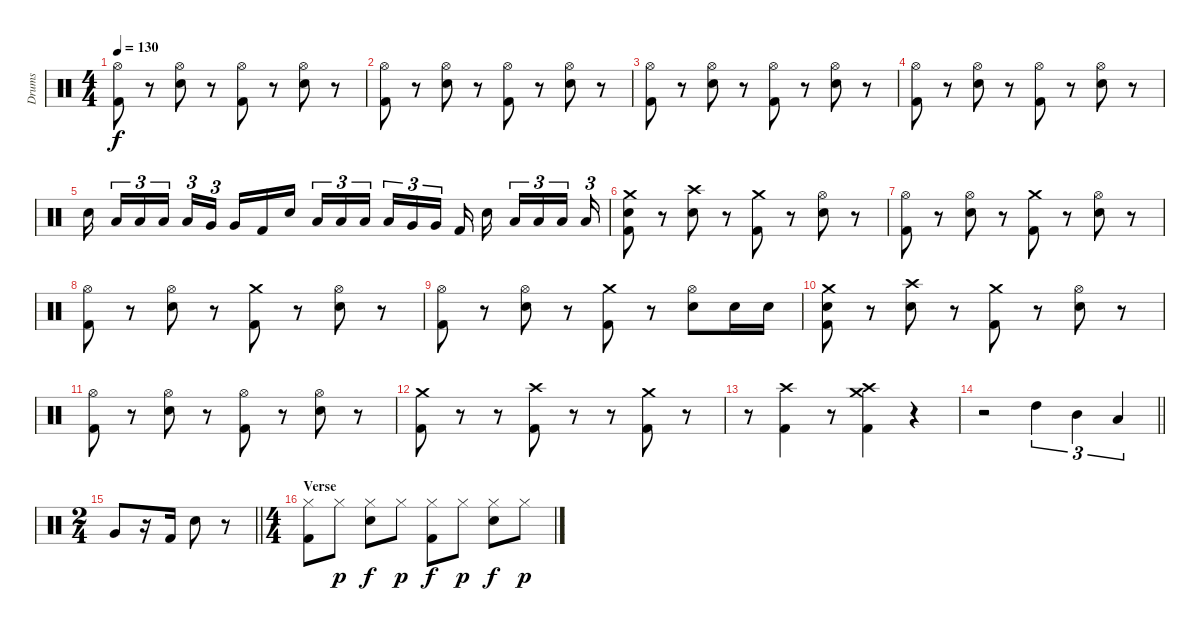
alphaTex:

\track ("Drums" "Drums") {instrument percussion}
\staff {score}
\articulation defaults
\ts (4 4)
\tempo 130
\clef neutral
\ks c
("Hi-Hat (open)" "Kick (hit) 2").8{dy f} r.8 ("Hi-Hat (open)" "Electric Snare (hit)").8 r.8 ("Hi-Hat (open)" "Kick (hit) 2").8 r.8 ("Hi-Hat (open)" "Electric Snare (hit)").8 r.8 |
("Hi-Hat (open)" "Kick (hit) 2").8 r.8 ("Hi-Hat (open)" "Electric Snare (hit)").8 r.8 ("Hi-Hat (open)" "Kick (hit) 2").8 r.8 ("Hi-Hat (open)" "Electric Snare (hit)").8 r.8 |
("Hi-Hat (open)" "Kick (hit) 2").8 r.8 ("Hi-Hat (open)" "Electric Snare (hit)").8 r.8 ("Hi-Hat (open)" "Kick (hit) 2").8 r.8 ("Hi-Hat (open)" "Electric Snare (hit)").8 r.8 |
("Hi-Hat (open)" "Kick (hit) 2").8 r.8 ("Hi-Hat (open)" "Electric Snare (hit)").8 r.8 ("Hi-Hat (open)" "Kick (hit) 2").8 r.8 ("Hi-Hat (open)" "Electric Snare (hit)").8 r.8 |
"Electric Snare (hit)".16{beam splitsecondary} "Low Tom (hit)".16{tu (3 2)} "Low Tom (hit)".16{tu (3 2)} "Low Tom (hit)".16{tu (3 2) beam splitsecondary} "Low Tom (hit)".16{tu (3 2)} "Very Low Tom (hit)".16{tu (3 2)} "Very Low Tom (hit)".16 "Kick (hit) 2".16 "Electric Snare (hit)".16{beam splitsecondary} "Low Tom (hit)".16{tu (3 2)} "Low Tom (hit)".16{tu (3 2)} "Low Tom (hit)".16{tu (3 2) beam splitsecondary} "Low Tom (hit)".16{tu (3 2)} "Very Low Tom (hit)".16{tu (3 2)} "Very Low Tom (hit)".16{tu (3 2) beam splitsecondary} "Kick (hit) 2".16 "Electric Snare (hit)".16{beam splitsecondary} "Low Tom (hit)".16{tu (3 2)} "Low Tom (hit)".16{tu (3 2)} "Low Tom (hit)".16{tu (3 2) beam splitsecondary} "Low Tom (hit)".16{tu (3 2)} |
("Crash medium (hit)" "Electric Snare (hit)" "Kick (hit) 2").8 r.8 ("Crash high (hit)" "Electric Snare (hit)").8 r.8 ("Crash medium (hit)" "Kick (hit) 2").8 r.8 ("Hi-Hat (open)" "Electric Snare (hit)").8 r.8 |
("Hi-Hat (open)" "Kick (hit) 2").8 r.8 ("Hi-Hat (open)" "Electric Snare (hit)").8 r.8 ("Crash medium (hit)" "Kick (hit) 2").8 r.8 ("Hi-Hat (open)" "Electric Snare (hit)").8 r.8 |
("Hi-Hat (open)" "Kick (hit) 2").8 r.8 ("Hi-Hat (open)" "Electric Snare (hit)").8 r.8 ("Crash medium (hit)" "Kick (hit) 2").8 r.8 ("Hi-Hat (open)" "Electric Snare (hit)").8 r.8 |
("Hi-Hat (open)" "Kick (hit) 2").8 r.8 ("Hi-Hat (open)" "Electric Snare (hit)").8 r.8 ("Crash medium (hit)" "Kick (hit) 2").8 r.8 ("Hi-Hat (open)" "Electric Snare (hit)").8 "Electric Snare (hit)".16 "Electric Snare (hit)".16 |
("Crash medium (hit)" "Electric Snare (hit)" "Kick (hit) 2").8 r.8 ("Crash high (hit)" "Electric Snare (hit)").8 r.8 ("Crash medium (hit)" "Kick (hit) 2").8 r.8 ("Hi-Hat (open)" "Electric Snare (hit)").8 r.8 |
("Hi-Hat (open)" "Kick (hit) 2").8 r.8 ("Hi-Hat (open)" "Electric Snare (hit)").8 r.8 ("Hi-Hat (open)" "Kick (hit) 2").8 r.8 ("Hi-Hat (open)" "Electric Snare (hit)").8 r.8 |
("Crash medium (hit)" "Kick (hit) 2").8 r.8 r.8 ("Crash high (hit)" "Kick (hit) 2").8 r.8 r.8 ("Crash medium (hit)" "Kick (hit) 2").8 r.8 |
r.8 ("Crash high (hit)" "Kick (hit) 2").4 r.8 ("Crash high (hit)" "Crash medium (hit)" "Kick (hit) 2").4 r.4 |
\barLineRight lightlight
r.2 "High Tom (hit)".4{tu (3 2)} "Mid Tom (hit)".4{tu (3 2)} "Low Tom (hit)".4{tu (3 2)} |
\ts (2 4)
\barLineRight lightlight "Very Low Tom (hit)".8
r.16 "Kick (hit) 2".16 "Electric Snare (hit)".8 r.8 |
\ts (4 4)
\section ("" "Verse")
("Hi-Hat (closed)" "Kick (hit) 2").8 "Hi-Hat (closed)".8{dy p} ("Hi-Hat (closed)" "Electric Snare (hit)").8{dy f} "Hi-Hat (closed)".8{dy p} ("Hi-Hat (closed)" "Kick (hit) 2").8{dy f} "Hi-Hat (closed)".8{dy p} ("Hi-Hat (closed)" "Electric Snare (hit)").8{dy f} "Hi-Hat (closed)".8{dy p}
